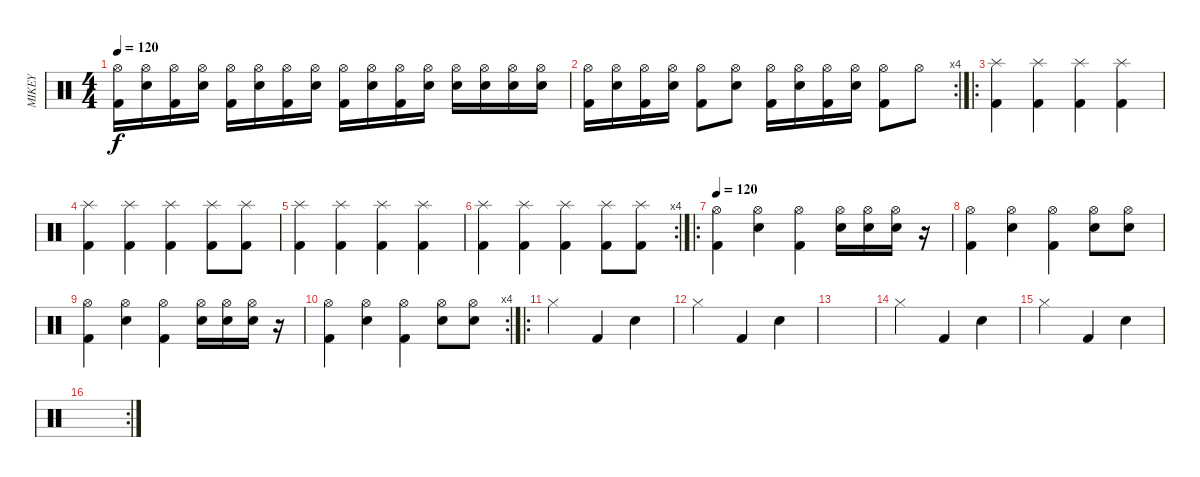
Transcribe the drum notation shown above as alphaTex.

\track ("MIKEY" "MIKEY") {instrument percussion}
\staff {score}
\articulation defaults
\ts (4 4)
\tempo 120
\clef neutral
\ks c
("Hi-Hat (open)" "Kick (hit) 2").16{dy f} ("Hi-Hat (open)" "Electric Snare (hit)").16 ("Hi-Hat (open)" "Kick (hit) 2").16 ("Hi-Hat (open)" "Electric Snare (hit)").16 ("Hi-Hat (open)" "Kick (hit) 2").16 ("Hi-Hat (open)" "Electric Snare (hit)").16 ("Hi-Hat (open)" "Kick (hit) 2").16 ("Hi-Hat (open)" "Electric Snare (hit)").16 ("Hi-Hat (open)" "Kick (hit) 2").16 ("Hi-Hat (open)" "Electric Snare (hit)").16 ("Hi-Hat (open)" "Kick (hit) 2").16 ("Hi-Hat (open)" "Electric Snare (hit)").16 ("Hi-Hat (open)" "Electric Snare (hit)").16 ("Hi-Hat (open)" "Electric Snare (hit)").16 ("Hi-Hat (open)" "Electric Snare (hit)").16 ("Hi-Hat (open)" "Electric Snare (hit)").16 |
\rc 4
("Hi-Hat (open)" "Kick (hit) 2").16 ("Hi-Hat (open)" "Electric Snare (hit)").16 ("Hi-Hat (open)" "Kick (hit) 2").16 ("Hi-Hat (open)" "Electric Snare (hit)").16 ("Hi-Hat (open)" "Kick (hit) 2").8 ("Hi-Hat (open)" "Electric Snare (hit)").8 ("Hi-Hat (open)" "Kick (hit) 2").16 ("Hi-Hat (open)" "Electric Snare (hit)").16 ("Hi-Hat (open)" "Kick (hit) 2").16 ("Hi-Hat (open)" "Electric Snare (hit)").16 ("Hi-Hat (open)" "Kick (hit) 2").8 "Hi-Hat (open)".8 |
\ro
("Splash (hit)" "Kick (hit) 2").4 ("Splash (hit)" "Kick (hit) 2").4 ("Splash (hit)" "Kick (hit) 2").4 ("Splash (hit)" "Kick (hit) 2").4 |
("Splash (hit)" "Kick (hit) 2").4 ("Splash (hit)" "Kick (hit) 2").4 ("Splash (hit)" "Kick (hit) 2").4 ("Splash (hit)" "Kick (hit) 2").8 ("Splash (hit)" "Kick (hit) 2").8 |
("Splash (hit)" "Kick (hit) 2").4 ("Splash (hit)" "Kick (hit) 2").4 ("Splash (hit)" "Kick (hit) 2").4 ("Splash (hit)" "Kick (hit) 2").4 |
\rc 4
("Splash (hit)" "Kick (hit) 2").4 ("Splash (hit)" "Kick (hit) 2").4 ("Splash (hit)" "Kick (hit) 2").4 ("Splash (hit)" "Kick (hit) 2").8 ("Splash (hit)" "Kick (hit) 2").8 |
\ro
\tempo 120
("Hi-Hat (open)" "Kick (hit) 2").4 ("Hi-Hat (open)" "Electric Snare (hit)").4 ("Hi-Hat (open)" "Kick (hit) 2").4 ("Hi-Hat (open)" "Electric Snare (hit)").16 ("Hi-Hat (open)" "Electric Snare (hit)").16 ("Hi-Hat (open)" "Electric Snare (hit)").16 r.16 |
("Hi-Hat (open)" "Kick (hit) 2").4 ("Hi-Hat (open)" "Electric Snare (hit)").4 ("Hi-Hat (open)" "Kick (hit) 2").4 ("Hi-Hat (open)" "Electric Snare (hit)").8 ("Hi-Hat (open)" "Electric Snare (hit)").8 |
("Hi-Hat (open)" "Kick (hit) 2").4 ("Hi-Hat (open)" "Electric Snare (hit)").4 ("Hi-Hat (open)" "Kick (hit) 2").4 ("Hi-Hat (open)" "Electric Snare (hit)").16 ("Hi-Hat (open)" "Electric Snare (hit)").16 ("Hi-Hat (open)" "Electric Snare (hit)").16 r.16 |
\rc 4
("Hi-Hat (open)" "Kick (hit) 2").4 ("Hi-Hat (open)" "Electric Snare (hit)").4 ("Hi-Hat (open)" "Kick (hit) 2").4 ("Hi-Hat (open)" "Electric Snare (hit)").8 ("Hi-Hat (open)" "Electric Snare (hit)").8 |
\ro "Hi-Hat (closed)".2 "Kick (hit) 2".4 "Electric Snare (hit)".4
|
"Hi-Hat (closed)".2 "Kick (hit) 2".4 "Electric Snare (hit)".4 |
|
"Hi-Hat (closed)".2 "Kick (hit) 2".4 "Electric Snare (hit)".4 |
"Hi-Hat (closed)".2 "Kick (hit) 2".4 "Electric Snare (hit)".4 |
\rc 2
